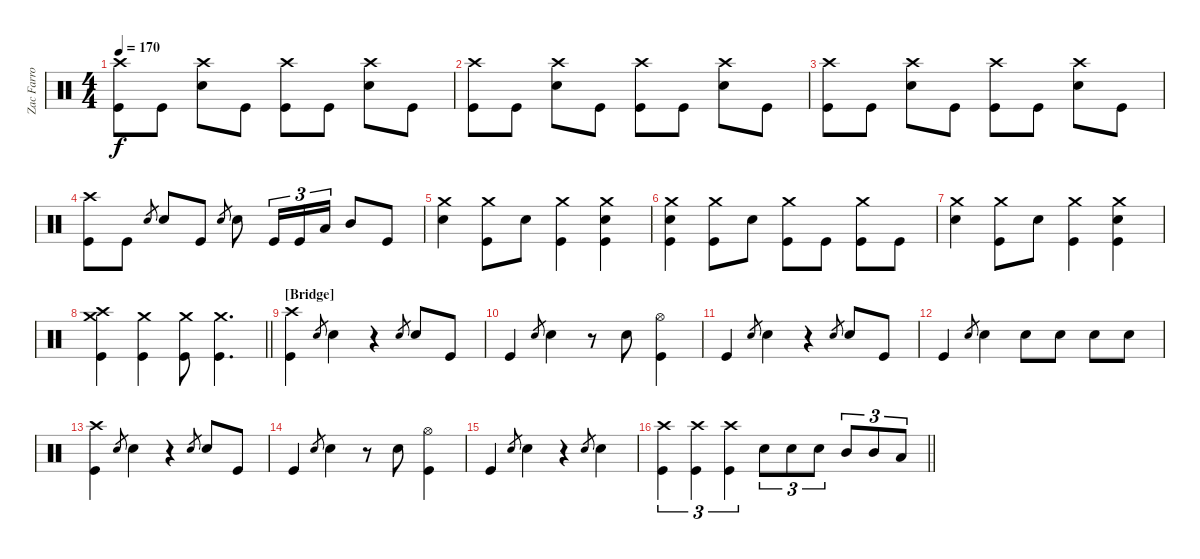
\track ("Zac Farro" "Zac Farro") {instrument percussion}
\staff {score}
\articulation defaults
\ts (4 4)
\tempo 170
\clef neutral
\ks c
("Crash high (hit)" "Kick (hit)").8{dy f} "Kick (hit)".8 ("Crash high (hit)" "Electric Snare (hit)").8 "Kick (hit)".8 ("Crash high (hit)" "Kick (hit)").8 "Kick (hit)".8 ("Crash high (hit)" "Electric Snare (hit)").8 "Kick (hit)".8 |
("Crash high (hit)" "Kick (hit)").8 "Kick (hit)".8 ("Crash high (hit)" "Electric Snare (hit)").8 "Kick (hit)".8 ("Crash high (hit)" "Kick (hit)").8 "Kick (hit)".8 ("Crash high (hit)" "Electric Snare (hit)").8 "Kick (hit)".8 |
("Crash high (hit)" "Kick (hit)").8 "Kick (hit)".8 ("Crash high (hit)" "Electric Snare (hit)").8 "Kick (hit)".8 ("Crash high (hit)" "Kick (hit)").8 "Kick (hit)".8 ("Crash high (hit)" "Electric Snare (hit)").8 "Kick (hit)".8 |
("Crash high (hit)" "Kick (hit)").8 "Kick (hit)".8 "Electric Snare (hit)".8{gr} "Electric Snare (hit)".8 "Kick (hit)".8 "Electric Snare (hit)".8{gr} "Electric Snare (hit)".8 "Kick (hit)".16{tu (3 2)} "Kick (hit)".16{tu (3 2)} "Low Tom (hit)".16{tu (3 2)} "Mid Tom (hit)".8 "Kick (hit)".8 |
("Crash medium (hit)" "Electric Snare (hit)").4 ("Crash medium (hit)" "Kick (hit)").8 "Electric Snare (hit)".8 ("Crash medium (hit)" "Kick (hit)").4 ("Crash medium (hit)" "Electric Snare (hit)" "Kick (hit)").4 |
("Crash medium (hit)" "Electric Snare (hit)" "Kick (hit)").4 ("Crash medium (hit)" "Kick (hit)").8 "Electric Snare (hit)".8 ("Crash medium (hit)" "Kick (hit)").8 "Kick (hit)".8 ("Crash medium (hit)" "Kick (hit)").8 "Kick (hit)".8 |
("Crash medium (hit)" "Electric Snare (hit)").4 ("Crash medium (hit)" "Kick (hit)").8 "Electric Snare (hit)".8 ("Crash medium (hit)" "Kick (hit)").4 ("Crash medium (hit)" "Electric Snare (hit)" "Kick (hit)").4 |
\barLineRight lightlight
("Crash medium (hit)" "Crash high (hit)" "Kick (hit)").4 ("Crash medium (hit)" "Kick (hit)").4 ("Crash medium (hit)" "Kick (hit)").8 ("Crash medium (hit)" "Kick (hit)").4{d} |
\section ("" "[Bridge]")
("Crash high (hit)" "Kick (hit)").4 "Electric Snare (hit)".8{gr} "Electric Snare (hit)".4 r.4 "Electric Snare (hit)".8{gr} "Electric Snare (hit)".8 "Kick (hit)".8 |
"Kick (hit)".4 "Electric Snare (hit)".8{gr} "Electric Snare (hit)".4 r.8 "Electric Snare (hit)".8 ("Hi-Hat (open)" "Kick (hit)").4 |
"Kick (hit)".4 "Electric Snare (hit)".8{gr} "Electric Snare (hit)".4 r.4 "Electric Snare (hit)".8{gr} "Electric Snare (hit)".8 "Kick (hit)".8 |
"Kick (hit)".4 "Electric Snare (hit)".8{gr} "Electric Snare (hit)".4 "Electric Snare (hit)".8 "Electric Snare (hit)".8 "Electric Snare (hit)".8 "Electric Snare (hit)".8 |
("Crash high (hit)" "Kick (hit)").4 "Electric Snare (hit)".8{gr} "Electric Snare (hit)".4 r.4 "Electric Snare (hit)".8{gr} "Electric Snare (hit)".8 "Kick (hit)".8 |
"Kick (hit)".4 "Electric Snare (hit)".8{gr} "Electric Snare (hit)".4 r.8 "Electric Snare (hit)".8 ("Hi-Hat (open)" "Kick (hit)").4 |
"Kick (hit)".4 "Electric Snare (hit)".8{gr} "Electric Snare (hit)".4 r.4 "Electric Snare (hit)".8{gr} "Electric Snare (hit)".4 |
\barLineRight lightlight
("Crash high (hit)" "Kick (hit)").4{tu (3 2)} ("Crash high (hit)" "Kick (hit)").4{tu (3 2)} ("Crash high (hit)" "Kick (hit)").4{tu (3 2)} "Electric Snare (hit)".8{tu (3 2)} "Electric Snare (hit)".8{tu (3 2)} "Electric Snare (hit)".8{tu (3 2)} "Mid Tom (hit)".8{tu (3 2)} "Mid Tom (hit)".8{tu (3 2)} "Low Tom (hit)".8{tu (3 2)}
